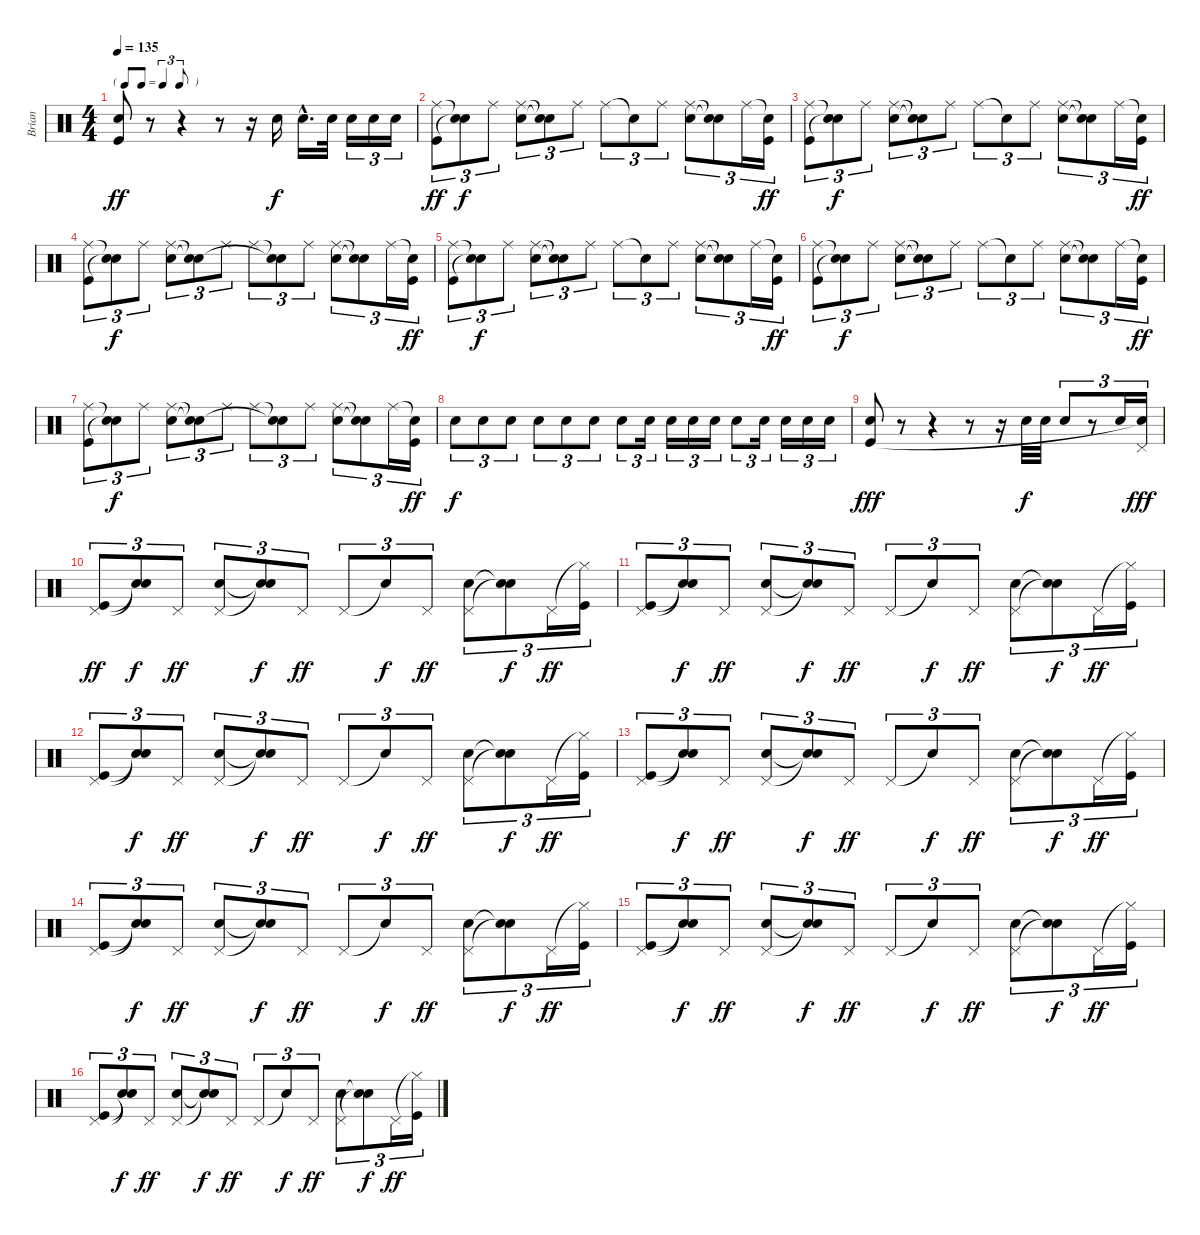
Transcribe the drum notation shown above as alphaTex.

\track ("Brian" "Brian") {instrument percussion}
\staff {score}
\articulation defaults
\ts (4 4)
\tf triplet8th
\tempo 135
\clef neutral
\ks c
("Snare (hit) 2" "Kick (hit)").8{dy ff} r.8 r.4 r.8 r.16 "Snare (hit) 2".16{dy f} "Snare (hit) 2"{hac}.16{d} "Snare (hit) 2".32 "Snare (hit) 2".16{tu (3 2)} "Snare (hit) 2".16{tu (3 2)} "Snare (hit) 2".16{tu (3 2)} |
("Ride (middle)" "Kick (hit)").8{tu (3 2) dy ff} ("Snare (hit)"{t} "Snare (hit)"{t}).8{tu (3 2) dy f} "Ride (middle)".8{tu (3 2)} ("Ride (middle)" "Snare (hit) 2").8{tu (3 2)} ("Snare (hit)"{t} "Snare (hit)"{t}).8{tu (3 2)} "Ride (middle)".8{tu (3 2)} "Ride (middle)".8{tu (3 2)} "Snare (hit)"{t}.8{tu (3 2)} "Ride (middle)".8{tu (3 2)} ("Ride (middle)" "Snare (hit) 2").8{tu (3 2)} ("Snare (hit)"{t} "Snare (hit)"{t}).8{tu (3 2)} "Ride (middle)".16{tu (3 2)} ("Snare (hit)"{t} "Kick (hit)").16{tu (3 2) dy ff} |
("Ride (middle)" "Kick (hit)").8{tu (3 2)} ("Snare (hit)"{t} "Snare (hit)"{t}).8{tu (3 2) dy f} "Ride (middle)".8{tu (3 2)} ("Ride (middle)" "Snare (hit) 2").8{tu (3 2)} ("Snare (hit)"{t} "Snare (hit)"{t}).8{tu (3 2)} "Ride (middle)".8{tu (3 2)} "Ride (middle)".8{tu (3 2)} "Snare (hit)"{t}.8{tu (3 2)} "Ride (middle)".8{tu (3 2)} ("Ride (middle)" "Snare (hit) 2").8{tu (3 2)} ("Snare (hit)"{t} "Snare (hit)"{t}).8{tu (3 2)} "Ride (middle)".16{tu (3 2)} ("Snare (hit)"{t} "Kick (hit)").16{tu (3 2) dy ff} |
("Ride (middle)" "Kick (hit)").8{tu (3 2)} ("Snare (hit)"{t} "Snare (hit)"{t}).8{tu (3 2) dy f} "Ride (middle)".8{tu (3 2)} ("Ride (middle)" "Snare (hit) 2").8{tu (3 2)} ("Snare (hit)"{t} "Snare (hit)"{t}).8{tu (3 2)} "Ride (middle)".8{tu (3 2)} "Ride (middle)".8{tu (3 2)} ("Snare (hit)"{t} "Snare (hit)"{t}).8{tu (3 2)} "Ride (middle)".8{tu (3 2)} ("Ride (middle)" "Snare (hit) 2").8{tu (3 2)} ("Snare (hit)"{t} "Snare (hit)"{t}).8{tu (3 2)} "Ride (middle)".16{tu (3 2)} ("Snare (hit)"{t} "Kick (hit)").16{tu (3 2) dy ff} |
("Ride (middle)" "Kick (hit)").8{tu (3 2)} ("Snare (hit)"{t} "Snare (hit)"{t}).8{tu (3 2) dy f} "Ride (middle)".8{tu (3 2)} ("Ride (middle)" "Snare (hit) 2").8{tu (3 2)} ("Snare (hit)"{t} "Snare (hit)"{t}).8{tu (3 2)} "Ride (middle)".8{tu (3 2)} "Ride (middle)".8{tu (3 2)} "Snare (hit)"{t}.8{tu (3 2)} "Ride (middle)".8{tu (3 2)} ("Ride (middle)" "Snare (hit) 2").8{tu (3 2)} ("Snare (hit)"{t} "Snare (hit)"{t}).8{tu (3 2)} "Ride (middle)".16{tu (3 2)} ("Snare (hit)"{t} "Kick (hit)").16{tu (3 2) dy ff} |
("Ride (middle)" "Kick (hit)").8{tu (3 2)} ("Snare (hit)"{t} "Snare (hit)"{t}).8{tu (3 2) dy f} "Ride (middle)".8{tu (3 2)} ("Ride (middle)" "Snare (hit) 2").8{tu (3 2)} ("Snare (hit)"{t} "Snare (hit)"{t}).8{tu (3 2)} "Ride (middle)".8{tu (3 2)} "Ride (middle)".8{tu (3 2)} "Snare (hit)"{t}.8{tu (3 2)} "Ride (middle)".8{tu (3 2)} ("Ride (middle)" "Snare (hit) 2").8{tu (3 2)} ("Snare (hit)"{t} "Snare (hit)"{t}).8{tu (3 2)} "Ride (middle)".16{tu (3 2)} ("Snare (hit)"{t} "Kick (hit)").16{tu (3 2) dy ff} |
("Ride (middle)" "Kick (hit)").8{tu (3 2)} ("Snare (hit)"{t} "Snare (hit)"{t}).8{tu (3 2) dy f} "Ride (middle)".8{tu (3 2)} ("Ride (middle)" "Snare (hit) 2").8{tu (3 2)} ("Snare (hit)"{t} "Snare (hit)"{t}).8{tu (3 2)} "Ride (middle)".8{tu (3 2)} "Ride (middle)".8{tu (3 2)} ("Snare (hit)"{t} "Snare (hit)"{t}).8{tu (3 2)} "Ride (middle)".8{tu (3 2)} ("Ride (middle)" "Snare (hit) 2").8{tu (3 2)} ("Snare (hit)"{t} "Snare (hit)"{t}).8{tu (3 2)} "Ride (middle)".16{tu (3 2)} ("Snare (hit)"{t} "Kick (hit)").16{tu (3 2) dy ff} |
"Snare (hit) 2".8{tu (3 2) dy f} "Snare (hit) 2".8{tu (3 2)} "Snare (hit) 2".8{tu (3 2)} "Snare (hit) 2".8{tu (3 2)} "Snare (hit) 2".8{tu (3 2)} "Snare (hit) 2".8{tu (3 2)} "Snare (hit) 2".8{tu (3 2)} "Snare (hit) 2".16{tu (3 2)} "Snare (hit) 2".16{tu (3 2)} "Snare (hit) 2".16{tu (3 2)} "Snare (hit) 2".16{tu (3 2)} "Snare (hit) 2".8{tu (3 2)} "Snare (hit) 2".16{tu (3 2)} "Snare (hit) 2".16{tu (3 2)} "Snare (hit) 2".16{tu (3 2)} "Snare (hit) 2".16{tu (3 2)} |
("Snare (hit) 2" "Kick (hit)").8{dy fff} r.8 r.4 r.8 r.16 "Snare (hit) 2".32{dy f} "Snare (hit) 2".32 "Snare (hit) 2".8{tu (3 2)} r.8{tu (3 2)} "Snare (hit) 2".16{tu (3 2)} ("Pedal Hi-Hat (hit)" "Snare (hit)"{t}).16{tu (3 2) dy fff} |
("Pedal Hi-Hat (hit)" "Kick (hit)").8{tu (3 2) dy ff} ("Snare (hit)"{t} "Snare (hit)"{t}).8{tu (3 2) dy f} "Pedal Hi-Hat (hit)".8{tu (3 2) dy ff} ("Pedal Hi-Hat (hit)" "Snare (hit) 2").8{tu (3 2)} ("Snare (hit)"{t} "Snare (hit)"{t}).8{tu (3 2) dy f} "Pedal Hi-Hat (hit)".8{tu (3 2) dy ff} "Pedal Hi-Hat (hit)".8{tu (3 2)} "Snare (hit)"{t}.8{tu (3 2) dy f} "Pedal Hi-Hat (hit)".8{tu (3 2) dy ff} ("Pedal Hi-Hat (hit)" "Snare (hit) 2").8{tu (3 2)} ("Snare (hit)"{t} "Snare (hit)"{t}).8{tu (3 2) dy f} "Pedal Hi-Hat (hit)".16{tu (3 2) dy ff} ("Hi-Hat (closed)"{t} "Kick (hit)").16{tu (3 2)} |
("Pedal Hi-Hat (hit)" "Kick (hit)").8{tu (3 2)} ("Snare (hit)"{t} "Snare (hit)"{t}).8{tu (3 2) dy f} "Pedal Hi-Hat (hit)".8{tu (3 2) dy ff} ("Pedal Hi-Hat (hit)" "Snare (hit) 2").8{tu (3 2)} ("Snare (hit)"{t} "Snare (hit)"{t}).8{tu (3 2) dy f} "Pedal Hi-Hat (hit)".8{tu (3 2) dy ff} "Pedal Hi-Hat (hit)".8{tu (3 2)} "Snare (hit)"{t}.8{tu (3 2) dy f} "Pedal Hi-Hat (hit)".8{tu (3 2) dy ff} ("Pedal Hi-Hat (hit)" "Snare (hit) 2").8{tu (3 2)} ("Snare (hit)"{t} "Snare (hit)"{t}).8{tu (3 2) dy f} "Pedal Hi-Hat (hit)".16{tu (3 2) dy ff} ("Hi-Hat (closed)"{t} "Kick (hit)").16{tu (3 2)} |
("Pedal Hi-Hat (hit)" "Kick (hit)").8{tu (3 2)} ("Snare (hit)"{t} "Snare (hit)"{t}).8{tu (3 2) dy f} "Pedal Hi-Hat (hit)".8{tu (3 2) dy ff} ("Pedal Hi-Hat (hit)" "Snare (hit) 2").8{tu (3 2)} ("Snare (hit)"{t} "Snare (hit)"{t}).8{tu (3 2) dy f} "Pedal Hi-Hat (hit)".8{tu (3 2) dy ff} "Pedal Hi-Hat (hit)".8{tu (3 2)} "Snare (hit)"{t}.8{tu (3 2) dy f} "Pedal Hi-Hat (hit)".8{tu (3 2) dy ff} ("Pedal Hi-Hat (hit)" "Snare (hit) 2").8{tu (3 2)} ("Snare (hit)"{t} "Snare (hit)"{t}).8{tu (3 2) dy f} "Pedal Hi-Hat (hit)".16{tu (3 2) dy ff} ("Hi-Hat (closed)"{t} "Kick (hit)").16{tu (3 2)} |
("Pedal Hi-Hat (hit)" "Kick (hit)").8{tu (3 2)} ("Snare (hit)"{t} "Snare (hit)"{t}).8{tu (3 2) dy f} "Pedal Hi-Hat (hit)".8{tu (3 2) dy ff} ("Pedal Hi-Hat (hit)" "Snare (hit) 2").8{tu (3 2)} ("Snare (hit)"{t} "Snare (hit)"{t}).8{tu (3 2) dy f} "Pedal Hi-Hat (hit)".8{tu (3 2) dy ff} "Pedal Hi-Hat (hit)".8{tu (3 2)} "Snare (hit)"{t}.8{tu (3 2) dy f} "Pedal Hi-Hat (hit)".8{tu (3 2) dy ff} ("Pedal Hi-Hat (hit)" "Snare (hit) 2").8{tu (3 2)} ("Snare (hit)"{t} "Snare (hit)"{t}).8{tu (3 2) dy f} "Pedal Hi-Hat (hit)".16{tu (3 2) dy ff} ("Hi-Hat (closed)"{t} "Kick (hit)").16{tu (3 2)} |
("Pedal Hi-Hat (hit)" "Kick (hit)").8{tu (3 2)} ("Snare (hit)"{t} "Snare (hit)"{t}).8{tu (3 2) dy f} "Pedal Hi-Hat (hit)".8{tu (3 2) dy ff} ("Pedal Hi-Hat (hit)" "Snare (hit) 2").8{tu (3 2)} ("Snare (hit)"{t} "Snare (hit)"{t}).8{tu (3 2) dy f} "Pedal Hi-Hat (hit)".8{tu (3 2) dy ff} "Pedal Hi-Hat (hit)".8{tu (3 2)} "Snare (hit)"{t}.8{tu (3 2) dy f} "Pedal Hi-Hat (hit)".8{tu (3 2) dy ff} ("Pedal Hi-Hat (hit)" "Snare (hit) 2").8{tu (3 2)} ("Snare (hit)"{t} "Snare (hit)"{t}).8{tu (3 2) dy f} "Pedal Hi-Hat (hit)".16{tu (3 2) dy ff} ("Hi-Hat (closed)"{t} "Kick (hit)").16{tu (3 2)} |
("Pedal Hi-Hat (hit)" "Kick (hit)").8{tu (3 2)} ("Snare (hit)"{t} "Snare (hit)"{t}).8{tu (3 2) dy f} "Pedal Hi-Hat (hit)".8{tu (3 2) dy ff} ("Pedal Hi-Hat (hit)" "Snare (hit) 2").8{tu (3 2)} ("Snare (hit)"{t} "Snare (hit)"{t}).8{tu (3 2) dy f} "Pedal Hi-Hat (hit)".8{tu (3 2) dy ff} "Pedal Hi-Hat (hit)".8{tu (3 2)} "Snare (hit)"{t}.8{tu (3 2) dy f} "Pedal Hi-Hat (hit)".8{tu (3 2) dy ff} ("Pedal Hi-Hat (hit)" "Snare (hit) 2").8{tu (3 2)} ("Snare (hit)"{t} "Snare (hit)"{t}).8{tu (3 2) dy f} "Pedal Hi-Hat (hit)".16{tu (3 2) dy ff} ("Hi-Hat (closed)"{t} "Kick (hit)").16{tu (3 2)} |
("Pedal Hi-Hat (hit)" "Kick (hit)").8{tu (3 2)} ("Snare (hit)"{t} "Snare (hit)"{t}).8{tu (3 2) dy f} "Pedal Hi-Hat (hit)".8{tu (3 2) dy ff} ("Pedal Hi-Hat (hit)" "Snare (hit) 2").8{tu (3 2)} ("Snare (hit)"{t} "Snare (hit)"{t}).8{tu (3 2) dy f} "Pedal Hi-Hat (hit)".8{tu (3 2) dy ff} "Pedal Hi-Hat (hit)".8{tu (3 2)} "Snare (hit)"{t}.8{tu (3 2) dy f} "Pedal Hi-Hat (hit)".8{tu (3 2) dy ff} ("Pedal Hi-Hat (hit)" "Snare (hit) 2").8{tu (3 2)} ("Snare (hit)"{t} "Snare (hit)"{t}).8{tu (3 2) dy f} "Pedal Hi-Hat (hit)".16{tu (3 2) dy ff} ("Hi-Hat (closed)"{t} "Kick (hit)").16{tu (3 2)}
